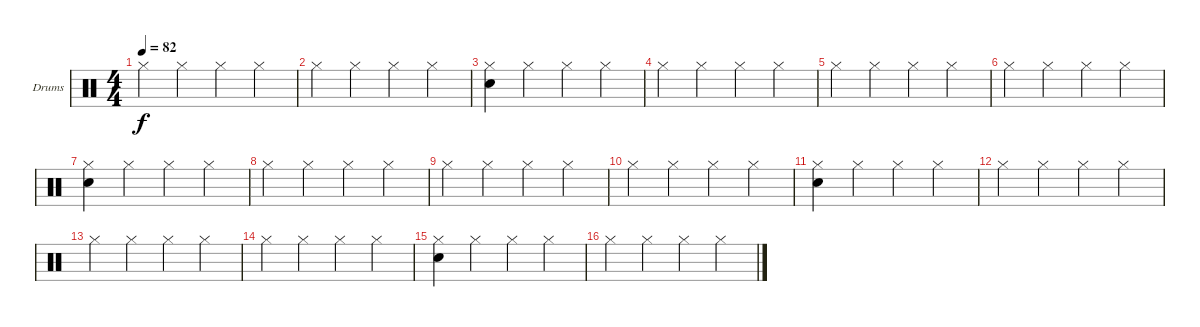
\bracketExtendMode groupsimilarinstruments
\firstSystemTrackNameOrientation horizontal
\otherSystemsTrackNameOrientation horizontal
\track ("Drumkit" "Drums") {instrument percussion}
\staff {score}
\articulation defaults
\ts (4 4)
\tempo 82
\clef neutral
\ks c "Hi-Hat (closed)".4{dy f} "Hi-Hat (closed)".4 "Hi-Hat (closed)".4 "Hi-Hat (closed)".4
|
"Hi-Hat (closed)".4 "Hi-Hat (closed)".4 "Hi-Hat (closed)".4 "Hi-Hat (closed)".4 |
("Snare (hit) 2" "Hi-Hat (closed)").4 "Hi-Hat (closed)".4 "Hi-Hat (closed)".4 "Hi-Hat (closed)".4 |
"Hi-Hat (closed)".4 "Hi-Hat (closed)".4 "Hi-Hat (closed)".4 "Hi-Hat (closed)".4 |
"Hi-Hat (closed)".4 "Hi-Hat (closed)".4 "Hi-Hat (closed)".4 "Hi-Hat (closed)".4 |
"Hi-Hat (closed)".4 "Hi-Hat (closed)".4 "Hi-Hat (closed)".4 "Hi-Hat (closed)".4 |
("Snare (hit) 2" "Hi-Hat (closed)").4 "Hi-Hat (closed)".4 "Hi-Hat (closed)".4 "Hi-Hat (closed)".4 |
"Hi-Hat (closed)".4 "Hi-Hat (closed)".4 "Hi-Hat (closed)".4 "Hi-Hat (closed)".4 |
"Hi-Hat (closed)".4 "Hi-Hat (closed)".4 "Hi-Hat (closed)".4 "Hi-Hat (closed)".4 |
"Hi-Hat (closed)".4 "Hi-Hat (closed)".4 "Hi-Hat (closed)".4 "Hi-Hat (closed)".4 |
("Snare (hit) 2" "Hi-Hat (closed)").4 "Hi-Hat (closed)".4 "Hi-Hat (closed)".4 "Hi-Hat (closed)".4 |
"Hi-Hat (closed)".4 "Hi-Hat (closed)".4 "Hi-Hat (closed)".4 "Hi-Hat (closed)".4 |
"Hi-Hat (closed)".4 "Hi-Hat (closed)".4 "Hi-Hat (closed)".4 "Hi-Hat (closed)".4 |
"Hi-Hat (closed)".4 "Hi-Hat (closed)".4 "Hi-Hat (closed)".4 "Hi-Hat (closed)".4 |
("Snare (hit) 2" "Hi-Hat (closed)").4 "Hi-Hat (closed)".4 "Hi-Hat (closed)".4 "Hi-Hat (closed)".4 |
"Hi-Hat (closed)".4 "Hi-Hat (closed)".4 "Hi-Hat (closed)".4 "Hi-Hat (closed)".4
